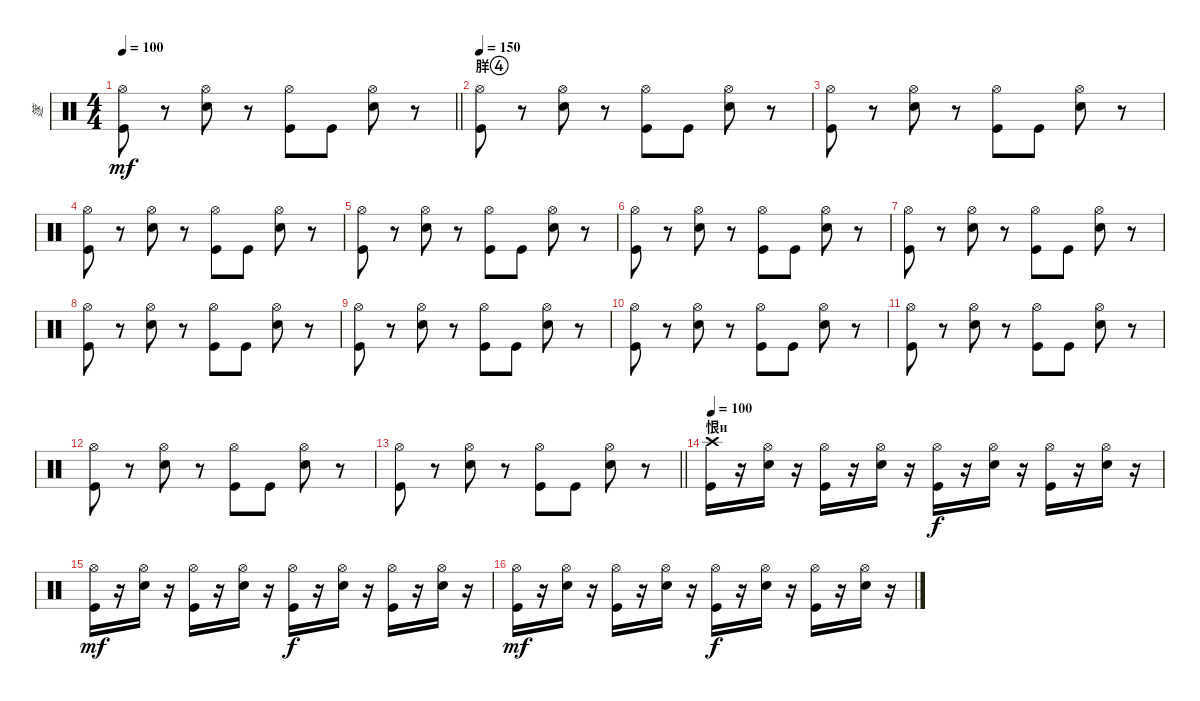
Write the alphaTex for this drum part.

\track ("篴" "篴") {instrument percussion}
\staff {score}
\articulation defaults
\ts (4 4)
\tempo 100
\clef neutral
\barLineRight lightlight
\ks c
("Hi-Hat (open)" "Kick (hit)").8{dy mf} r.8 ("Hi-Hat (open)" "Snare (hit) 2").8 r.8 ("Hi-Hat (open)" "Kick (hit)").8 "Kick (hit)".8 ("Hi-Hat (open)" "Snare (hit) 2").8 r.8 |
\section ("" "羘")
\tempo 150
("Hi-Hat (open)" "Kick (hit)").8 r.8 ("Hi-Hat (open)" "Snare (hit) 2").8 r.8 ("Hi-Hat (open)" "Kick (hit)").8 "Kick (hit)".8 ("Hi-Hat (open)" "Snare (hit) 2").8 r.8 |
("Hi-Hat (open)" "Kick (hit)").8 r.8 ("Hi-Hat (open)" "Snare (hit) 2").8 r.8 ("Hi-Hat (open)" "Kick (hit)").8 "Kick (hit)".8 ("Hi-Hat (open)" "Snare (hit) 2").8 r.8 |
("Hi-Hat (open)" "Kick (hit)").8 r.8 ("Hi-Hat (open)" "Snare (hit) 2").8 r.8 ("Hi-Hat (open)" "Kick (hit)").8 "Kick (hit)".8 ("Hi-Hat (open)" "Snare (hit) 2").8 r.8 |
("Hi-Hat (open)" "Kick (hit)").8 r.8 ("Hi-Hat (open)" "Snare (hit) 2").8 r.8 ("Hi-Hat (open)" "Kick (hit)").8 "Kick (hit)".8 ("Hi-Hat (open)" "Snare (hit) 2").8 r.8 |
("Hi-Hat (open)" "Kick (hit)").8 r.8 ("Hi-Hat (open)" "Snare (hit) 2").8 r.8 ("Hi-Hat (open)" "Kick (hit)").8 "Kick (hit)".8 ("Hi-Hat (open)" "Snare (hit) 2").8 r.8 |
("Hi-Hat (open)" "Kick (hit)").8 r.8 ("Hi-Hat (open)" "Snare (hit) 2").8 r.8 ("Hi-Hat (open)" "Kick (hit)").8 "Kick (hit)".8 ("Hi-Hat (open)" "Snare (hit) 2").8 r.8 |
("Hi-Hat (open)" "Kick (hit)").8 r.8 ("Hi-Hat (open)" "Snare (hit) 2").8 r.8 ("Hi-Hat (open)" "Kick (hit)").8 "Kick (hit)".8 ("Hi-Hat (open)" "Snare (hit) 2").8 r.8 |
("Hi-Hat (open)" "Kick (hit)").8 r.8 ("Hi-Hat (open)" "Snare (hit) 2").8 r.8 ("Hi-Hat (open)" "Kick (hit)").8 "Kick (hit)".8 ("Hi-Hat (open)" "Snare (hit) 2").8 r.8 |
("Hi-Hat (open)" "Kick (hit)").8 r.8 ("Hi-Hat (open)" "Snare (hit) 2").8 r.8 ("Hi-Hat (open)" "Kick (hit)").8 "Kick (hit)".8 ("Hi-Hat (open)" "Snare (hit) 2").8 r.8 |
("Hi-Hat (open)" "Kick (hit)").8 r.8 ("Hi-Hat (open)" "Snare (hit) 2").8 r.8 ("Hi-Hat (open)" "Kick (hit)").8 "Kick (hit)".8 ("Hi-Hat (open)" "Snare (hit) 2").8 r.8 |
("Hi-Hat (open)" "Kick (hit)").8 r.8 ("Hi-Hat (open)" "Snare (hit) 2").8 r.8 ("Hi-Hat (open)" "Kick (hit)").8 "Kick (hit)".8 ("Hi-Hat (open)" "Snare (hit) 2").8 r.8 |
\barLineRight lightlight
("Hi-Hat (open)" "Kick (hit)").8 r.8 ("Hi-Hat (open)" "Snare (hit) 2").8 r.8 ("Hi-Hat (open)" "Kick (hit)").8 "Kick (hit)".8 ("Hi-Hat (open)" "Snare (hit) 2").8 r.8 |
\section ("" "恨и")
\tempo 100
("Crash high (hit)" "Kick (hit)").16 r.16 ("Hi-Hat (open)" "Snare (hit) 2").16 r.16 ("Hi-Hat (open)" "Kick (hit)").16 r.16 ("Hi-Hat (open)" "Snare (hit) 2").16 r.16 ("Hi-Hat (open)" "Kick (hit)").16{dy f} r.16 ("Hi-Hat (open)" "Snare (hit) 2").16 r.16 ("Hi-Hat (open)" "Kick (hit)").16 r.16 ("Hi-Hat (open)" "Snare (hit) 2").16 r.16 |
("Hi-Hat (open)" "Kick (hit)").16{dy mf} r.16 ("Hi-Hat (open)" "Snare (hit) 2").16 r.16 ("Hi-Hat (open)" "Kick (hit)").16 r.16 ("Hi-Hat (open)" "Snare (hit) 2").16 r.16 ("Hi-Hat (open)" "Kick (hit)").16{dy f} r.16 ("Hi-Hat (open)" "Snare (hit) 2").16 r.16 ("Hi-Hat (open)" "Kick (hit)").16 r.16 ("Hi-Hat (open)" "Snare (hit) 2").16 r.16 |
("Hi-Hat (open)" "Kick (hit)").16{dy mf} r.16 ("Hi-Hat (open)" "Snare (hit) 2").16 r.16 ("Hi-Hat (open)" "Kick (hit)").16 r.16 ("Hi-Hat (open)" "Snare (hit) 2").16 r.16 ("Hi-Hat (open)" "Kick (hit)").16{dy f} r.16 ("Hi-Hat (open)" "Snare (hit) 2").16 r.16 ("Hi-Hat (open)" "Kick (hit)").16 r.16 ("Hi-Hat (open)" "Snare (hit) 2").16 r.16
